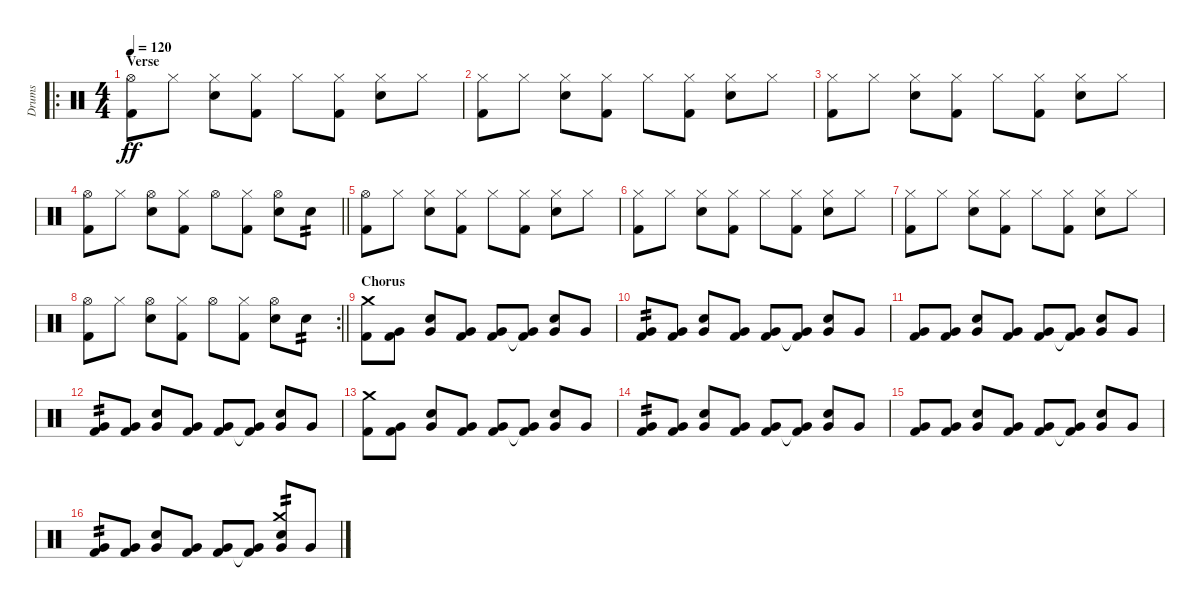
\track ("Drums" "Drums") {instrument percussion}
\staff {score}
\articulation defaults
\ro
\ts (4 4)
\section ("" "Verse")
\tempo 120
\clef neutral
\ks c
("Hi-Hat (open)" "Kick (hit) 2").8{dy ff} "Hi-Hat (closed)".8 ("Hi-Hat (closed)" "Snare (hit) 2").8 ("Hi-Hat (closed)" "Kick (hit) 2").8 "Hi-Hat (closed)".8 ("Hi-Hat (closed)" "Kick (hit) 2").8 ("Hi-Hat (closed)" "Snare (hit) 2").8 "Hi-Hat (closed)".8 |
("Hi-Hat (closed)" "Kick (hit) 2").8 "Hi-Hat (closed)".8 ("Hi-Hat (closed)" "Snare (hit) 2").8 ("Hi-Hat (closed)" "Kick (hit) 2").8 "Hi-Hat (closed)".8 ("Hi-Hat (closed)" "Kick (hit) 2").8 ("Hi-Hat (closed)" "Snare (hit) 2").8 "Hi-Hat (closed)".8 |
("Hi-Hat (closed)" "Kick (hit) 2").8 "Hi-Hat (closed)".8 ("Hi-Hat (closed)" "Snare (hit) 2").8 ("Hi-Hat (closed)" "Kick (hit) 2").8 "Hi-Hat (closed)".8 ("Hi-Hat (closed)" "Kick (hit) 2").8 ("Hi-Hat (closed)" "Snare (hit) 2").8 "Hi-Hat (closed)".8 |
\barLineRight lightlight
("Hi-Hat (open)" "Kick (hit) 2").8 "Hi-Hat (closed)".8 ("Hi-Hat (open)" "Snare (hit) 2").8 ("Hi-Hat (closed)" "Kick (hit) 2").8 "Hi-Hat (open)".8 ("Hi-Hat (closed)" "Kick (hit) 2").8 ("Hi-Hat (open)" "Snare (hit) 2").8 "Snare (hit) 2".8{tp 2} |
("Hi-Hat (open)" "Kick (hit) 2").8 "Hi-Hat (closed)".8 ("Hi-Hat (closed)" "Snare (hit) 2").8 ("Hi-Hat (closed)" "Kick (hit) 2").8 "Hi-Hat (closed)".8 ("Hi-Hat (closed)" "Kick (hit) 2").8 ("Hi-Hat (closed)" "Snare (hit) 2").8 "Hi-Hat (closed)".8 |
("Hi-Hat (closed)" "Kick (hit) 2").8 "Hi-Hat (closed)".8 ("Hi-Hat (closed)" "Snare (hit) 2").8 ("Hi-Hat (closed)" "Kick (hit) 2").8 "Hi-Hat (closed)".8 ("Hi-Hat (closed)" "Kick (hit) 2").8 ("Hi-Hat (closed)" "Snare (hit) 2").8 "Hi-Hat (closed)".8 |
("Hi-Hat (closed)" "Kick (hit) 2").8 "Hi-Hat (closed)".8 ("Hi-Hat (closed)" "Snare (hit) 2").8 ("Hi-Hat (closed)" "Kick (hit) 2").8 "Hi-Hat (closed)".8 ("Hi-Hat (closed)" "Kick (hit) 2").8 ("Hi-Hat (closed)" "Snare (hit) 2").8 "Hi-Hat (closed)".8 |
\rc 2
\barLineRight lightlight
("Hi-Hat (open)" "Kick (hit) 2").8 "Hi-Hat (closed)".8 ("Hi-Hat (open)" "Snare (hit) 2").8 ("Hi-Hat (closed)" "Kick (hit) 2").8 "Hi-Hat (open)".8 ("Hi-Hat (closed)" "Kick (hit) 2").8 ("Hi-Hat (open)" "Snare (hit) 2").8 "Snare (hit) 2".8{tp 2} |
\section ("" "Chorus")
("Crash medium (hit)" "Kick (hit) 2").8 ("Very Low Tom (hit)" "Kick (hit) 2").8 ("Very Low Tom (hit)" "Snare (hit) 2").8 ("Very Low Tom (hit)" "Kick (hit) 2").8 ("Very Low Tom (hit)" "Kick (hit) 2").8 ("Very Low Tom (hit)" "Kick (hit) 2"{t}).8 ("Very Low Tom (hit)" "Snare (hit) 2").8 "Very Low Tom (hit)".8 |
("Very Low Tom (hit)" "Kick (hit) 2").8{tp 2} ("Very Low Tom (hit)" "Kick (hit) 2").8 ("Very Low Tom (hit)" "Snare (hit) 2").8 ("Very Low Tom (hit)" "Kick (hit) 2").8 ("Very Low Tom (hit)" "Kick (hit) 2").8 ("Very Low Tom (hit)" "Kick (hit) 2"{t}).8 ("Very Low Tom (hit)" "Snare (hit) 2").8 "Very Low Tom (hit)".8 |
("Very Low Tom (hit)" "Kick (hit) 2").8 ("Very Low Tom (hit)" "Kick (hit) 2").8 ("Very Low Tom (hit)" "Snare (hit) 2").8 ("Very Low Tom (hit)" "Kick (hit) 2").8 ("Very Low Tom (hit)" "Kick (hit) 2").8 ("Very Low Tom (hit)" "Kick (hit) 2"{t}).8 ("Very Low Tom (hit)" "Snare (hit) 2").8 "Very Low Tom (hit)".8 |
("Very Low Tom (hit)" "Kick (hit) 2").8{tp 2} ("Very Low Tom (hit)" "Kick (hit) 2").8 ("Very Low Tom (hit)" "Snare (hit) 2").8 ("Very Low Tom (hit)" "Kick (hit) 2").8 ("Very Low Tom (hit)" "Kick (hit) 2").8 ("Very Low Tom (hit)" "Kick (hit) 2"{t}).8 ("Very Low Tom (hit)" "Snare (hit) 2").8 "Very Low Tom (hit)".8 |
("Crash medium (hit)" "Kick (hit) 2").8 ("Very Low Tom (hit)" "Kick (hit) 2").8 ("Very Low Tom (hit)" "Snare (hit) 2").8 ("Very Low Tom (hit)" "Kick (hit) 2").8 ("Very Low Tom (hit)" "Kick (hit) 2").8 ("Very Low Tom (hit)" "Kick (hit) 2"{t}).8 ("Very Low Tom (hit)" "Snare (hit) 2").8 "Very Low Tom (hit)".8 |
("Very Low Tom (hit)" "Kick (hit) 2").8{tp 2} ("Very Low Tom (hit)" "Kick (hit) 2").8 ("Very Low Tom (hit)" "Snare (hit) 2").8 ("Very Low Tom (hit)" "Kick (hit) 2").8 ("Very Low Tom (hit)" "Kick (hit) 2").8 ("Very Low Tom (hit)" "Kick (hit) 2"{t}).8 ("Very Low Tom (hit)" "Snare (hit) 2").8 "Very Low Tom (hit)".8 |
("Very Low Tom (hit)" "Kick (hit) 2").8 ("Very Low Tom (hit)" "Kick (hit) 2").8 ("Very Low Tom (hit)" "Snare (hit) 2").8 ("Very Low Tom (hit)" "Kick (hit) 2").8 ("Very Low Tom (hit)" "Kick (hit) 2").8 ("Very Low Tom (hit)" "Kick (hit) 2"{t}).8 ("Very Low Tom (hit)" "Snare (hit) 2").8 "Very Low Tom (hit)".8 |
("Very Low Tom (hit)" "Kick (hit) 2").8{tp 2} ("Very Low Tom (hit)" "Kick (hit) 2").8 ("Very Low Tom (hit)" "Snare (hit) 2").8 ("Very Low Tom (hit)" "Kick (hit) 2").8 ("Very Low Tom (hit)" "Kick (hit) 2").8 ("Very Low Tom (hit)" "Kick (hit) 2"{t}).8 ("Crash medium (hit)" "Very Low Tom (hit)" "Snare (hit) 2").8{tp 2} "Very Low Tom (hit)".8
